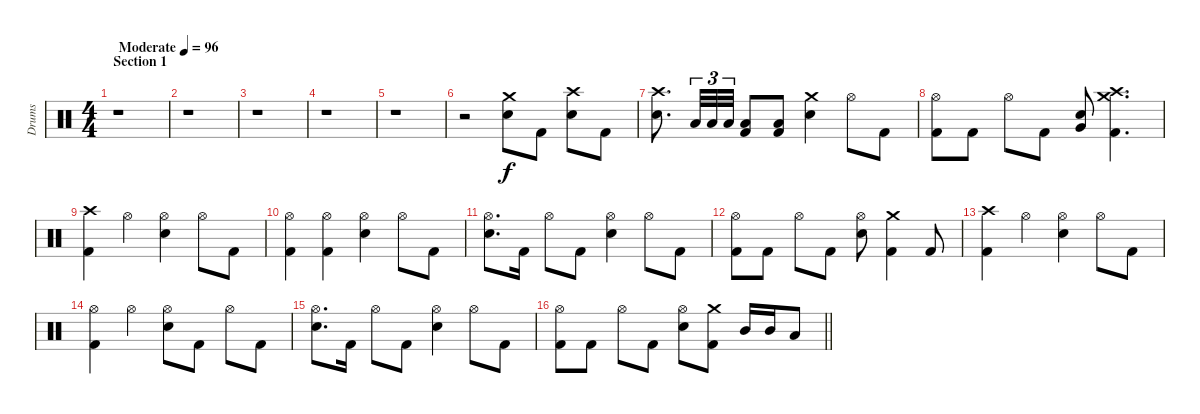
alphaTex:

\track ("Drums" "Drums") {instrument percussion}
\staff {score}
\articulation defaults
\ts (4 4)
\section ("" "Section 1")
\tempo (96 "Moderate")
\clef neutral
\ks c
r.1{dy f} |
r.1 |
r.1 |
r.1 |
r.1 |
r.2 ("Crash medium (hit)" "Electric Snare (hit)").8 "Kick (hit) 2".8 ("Crash high (hit)" "Electric Snare (hit)").8 "Kick (hit) 2".8 |
("Crash high (hit)" "Electric Snare (hit)").8{d} "Low Tom (hit)".32{tu (3 2)} "Low Tom (hit)".32{tu (3 2)} "Low Tom (hit)".32{tu (3 2)} ("Low Tom (hit)" "Kick (hit) 2").8 ("Low Tom (hit)" "Kick (hit) 2").8 ("Crash medium (hit)" "Electric Snare (hit)").4 "Hi-Hat (open)".8 "Kick (hit) 2".8 |
("Hi-Hat (open)" "Kick (hit) 2").8 "Kick (hit) 2".8 "Hi-Hat (open)".8 "Kick (hit) 2".8 ("Electric Snare (hit)" "Very Low Tom (hit)").8 ("Crash medium (hit)" "Crash high (hit)" "Kick (hit) 2").4{d} |
("Crash high (hit)" "Kick (hit) 2").4 "Hi-Hat (open)".4 ("Hi-Hat (open)" "Electric Snare (hit)").4 "Hi-Hat (open)".8 "Kick (hit) 2".8 |
("Hi-Hat (open)" "Kick (hit) 2").4 ("Hi-Hat (open)" "Kick (hit) 2").4 ("Hi-Hat (open)" "Electric Snare (hit)").4 "Hi-Hat (open)".8 "Kick (hit) 2".8 |
("Hi-Hat (open)" "Electric Snare (hit)").8{d} "Kick (hit) 2".16 "Hi-Hat (open)".8 "Kick (hit) 2".8 ("Hi-Hat (open)" "Electric Snare (hit)").4 "Hi-Hat (open)".8 "Kick (hit) 2".8 |
("Hi-Hat (open)" "Kick (hit) 2").8 "Kick (hit) 2".8 "Hi-Hat (open)".8 "Kick (hit) 2".8 ("Hi-Hat (open)" "Electric Snare (hit)").8 ("Crash medium (hit)" "Kick (hit) 2").4 "Kick (hit) 2".8 |
("Crash high (hit)" "Kick (hit) 2").4 "Hi-Hat (open)".4 ("Hi-Hat (open)" "Electric Snare (hit)").4 "Hi-Hat (open)".8 "Kick (hit) 2".8 |
("Hi-Hat (open)" "Kick (hit) 2").4 "Hi-Hat (open)".4 ("Hi-Hat (open)" "Electric Snare (hit)").8 "Kick (hit) 2".8 "Hi-Hat (open)".8 "Kick (hit) 2".8 |
("Hi-Hat (open)" "Electric Snare (hit)").8{d} "Kick (hit) 2".16 "Hi-Hat (open)".8 "Kick (hit) 2".8 ("Hi-Hat (open)" "Electric Snare (hit)").4 "Hi-Hat (open)".8 "Kick (hit) 2".8 |
\barLineRight lightlight
("Hi-Hat (open)" "Kick (hit) 2").8 "Kick (hit) 2".8 "Hi-Hat (open)".8 "Kick (hit) 2".8 ("Hi-Hat (open)" "Electric Snare (hit)").8 ("Crash medium (hit)" "Kick (hit) 2").8 "Mid Tom (hit)".16 "Mid Tom (hit)".16 "Low Tom (hit)".8
